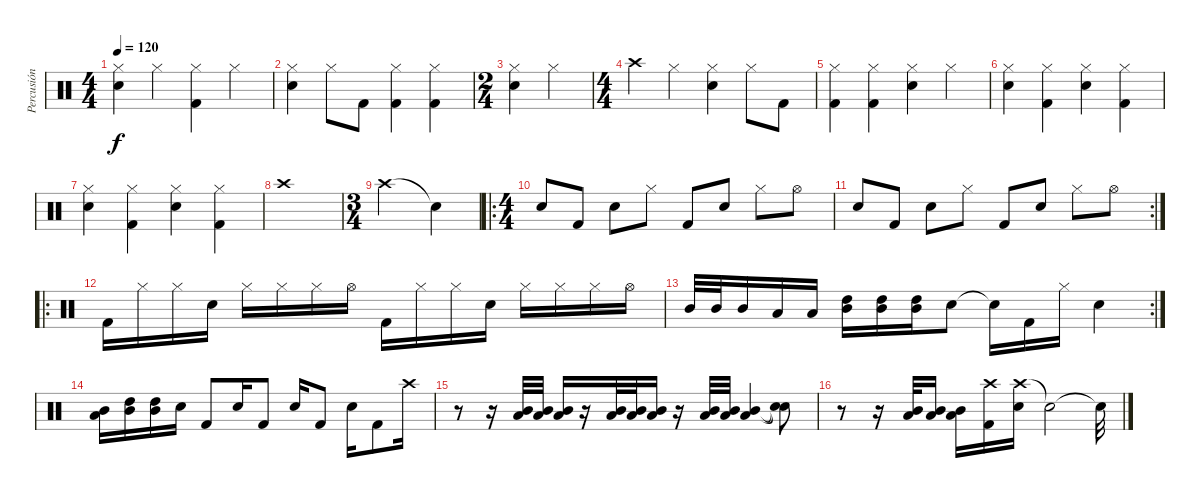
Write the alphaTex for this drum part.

\track ("Percusión" "Percusión") {instrument percussion}
\staff {score}
\articulation defaults
\ts (4 4)
\tempo 120
\clef neutral
\ks c
("Hi-Hat (closed)" "Snare (hit) 2").4{dy f} "Hi-Hat (closed)".4 ("Hi-Hat (closed)" "Kick (hit) 2").4 "Hi-Hat (closed)".4 |
("Hi-Hat (closed)" "Snare (hit) 2").4 "Hi-Hat (closed)".8 "Kick (hit) 2".8 ("Hi-Hat (closed)" "Kick (hit) 2").4 ("Hi-Hat (closed)" "Kick (hit) 2").4 |
\ts (2 4)
("Hi-Hat (closed)" "Snare (hit) 2").4 "Hi-Hat (closed)".4 |
\ts (4 4)
"Crash high (hit)".4 "Hi-Hat (closed)".4 ("Hi-Hat (closed)" "Snare (hit) 2").4 "Hi-Hat (closed)".8 "Kick (hit) 2".8 |
("Hi-Hat (closed)" "Kick (hit) 2").4 ("Hi-Hat (closed)" "Kick (hit) 2").4 ("Hi-Hat (closed)" "Snare (hit) 2").4 "Hi-Hat (closed)".4 |
("Hi-Hat (closed)" "Snare (hit) 2").4 ("Hi-Hat (closed)" "Kick (hit) 2").4 ("Hi-Hat (closed)" "Snare (hit) 2").4 ("Hi-Hat (closed)" "Kick (hit) 2").4 |
("Hi-Hat (closed)" "Snare (hit) 2").4 ("Hi-Hat (closed)" "Kick (hit) 2").4 ("Hi-Hat (closed)" "Snare (hit) 2").4 ("Hi-Hat (closed)" "Kick (hit) 2").4 |
"Crash high (hit)".1 |
\ts (3 4)
"Crash high (hit)".2 "Snare (hit)"{t}.4 |
\ro
\ts (4 4)
"Snare (hit) 2".8 "Kick (hit) 2".8 "Snare (hit) 2".8 "Hi-Hat (closed)".8 "Kick (hit) 2".8 "Snare (hit) 2".8 "Hi-Hat (closed)".8 "Hi-Hat (open)".8 |
\rc 2 "Snare (hit) 2".8 "Kick (hit) 2".8 "Snare (hit) 2".8 "Hi-Hat (closed)".8 "Kick (hit) 2".8 "Snare (hit) 2".8 "Hi-Hat (closed)".8 "Hi-Hat (open)".8
|
\ro "Kick (hit) 2".16 "Hi-Hat (closed)".16 "Hi-Hat (closed)".16 "Snare (hit) 2".16 "Hi-Hat (closed)".16 "Hi-Hat (closed)".16 "Hi-Hat (closed)".16 "Hi-Hat (open)".16 "Kick (hit) 2".16 "Hi-Hat (closed)".16 "Hi-Hat (closed)".16 "Snare (hit) 2".16 "Hi-Hat (closed)".16 "Hi-Hat (closed)".16 "Hi-Hat (closed)".16 "Hi-Hat (open)".16
|
\rc 2 "Mid Tom (hit)".32 "Mid Tom (hit)".32 "Mid Tom (hit)".16 "Low Floor Tom (hit)".16 "Low Floor Tom (hit)".16
("Mid Tom (hit)" "High Tom (hit)").16 ("Mid Tom (hit)" "High Tom (hit)").16 ("Mid Tom (hit)" "High Tom (hit)").16 "Snare (hit) 2".8 "Snare (hit)"{t}.16 "Kick (hit) 2".16 "Hi-Hat (closed)".16 "Snare (hit) 2".4 |
("Mid Tom (hit)" "Low Floor Tom (hit)").16 ("Mid Tom (hit)" "High Tom (hit)").16 ("Mid Tom (hit)" "High Tom (hit)").16 "Snare (hit) 2".16 "Kick (hit) 2".8 "Snare (hit) 2".16 "Kick (hit) 2".8 "Snare (hit) 2".16 "Kick (hit) 2".8 "Snare (hit) 2".16 "Kick (hit) 2".8 "Crash high (hit)".16 |
r.8 r.16 ("Low Floor Tom (hit)" "Mid Tom (hit)").32 ("Low Floor Tom (hit)" "Mid Tom (hit)").32 ("Low Floor Tom (hit)" "Mid Tom (hit)").16 r.16 ("Low Floor Tom (hit)" "Mid Tom (hit)").32 ("Low Floor Tom (hit)" "Mid Tom (hit)").32 ("Low Floor Tom (hit)" "Mid Tom (hit)").16 r.16 ("Low Floor Tom (hit)" "Mid Tom (hit)").32 ("Mid Tom (hit)" "Low Floor Tom (hit)").32 ("Mid Tom (hit)" "Low Floor Tom (hit)").4 ("Snare (hit)"{t} "Snare (hit)"{t}).8 |
r.8 r.16 ("Mid Tom (hit)" "Low Floor Tom (hit)").32 ("Mid Tom (hit)" "Low Floor Tom (hit)").16 ("Mid Tom (hit)" "Low Floor Tom (hit)").16 ("Crash high (hit)" "Kick (hit) 2").16 ("Crash high (hit)" "Snare (hit) 2").16 "Snare (hit)"{t}.2 "Snare (hit)"{t}.32
